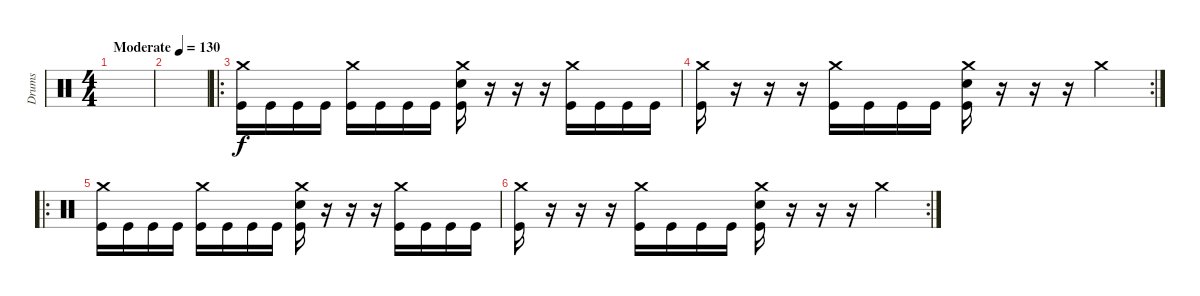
\track ("Drums" "Drums") {instrument percussion}
\staff {score}
\articulation defaults
\ts (4 4)
\tempo (130 "Moderate")
\clef neutral
\ks c
|
|
\ro
("Crash medium (hit)" "Kick (hit)").16 "Kick (hit)".16 "Kick (hit)".16 "Kick (hit)".16 ("Crash medium (hit)" "Kick (hit)").16 "Kick (hit)".16 "Kick (hit)".16 "Kick (hit)".16 ("Crash medium (hit)" "Snare (hit) 2" "Kick (hit)").16 r.16 r.16 r.16 ("Crash medium (hit)" "Kick (hit)").16 "Kick (hit)".16 "Kick (hit)".16 "Kick (hit)".16 |
\rc 2
("Crash medium (hit)" "Kick (hit)").16 r.16 r.16 r.16 ("Crash medium (hit)" "Kick (hit)").16 "Kick (hit)".16 "Kick (hit)".16 "Kick (hit)".16 ("Crash medium (hit)" "Snare (hit) 2" "Kick (hit)").16 r.16 r.16 r.16 "Crash medium (hit)".4 |
\ro
("Crash medium (hit)" "Kick (hit)").16 "Kick (hit)".16 "Kick (hit)".16 "Kick (hit)".16 ("Crash medium (hit)" "Kick (hit)").16 "Kick (hit)".16 "Kick (hit)".16 "Kick (hit)".16 ("Crash medium (hit)" "Snare (hit) 2" "Kick (hit)").16 r.16 r.16 r.16 ("Crash medium (hit)" "Kick (hit)").16 "Kick (hit)".16 "Kick (hit)".16 "Kick (hit)".16 |
\rc 2
("Crash medium (hit)" "Kick (hit)").16 r.16 r.16 r.16 ("Crash medium (hit)" "Kick (hit)").16 "Kick (hit)".16 "Kick (hit)".16 "Kick (hit)".16 ("Crash medium (hit)" "Snare (hit) 2" "Kick (hit)").16 r.16 r.16 r.16 "Crash medium (hit)".4
